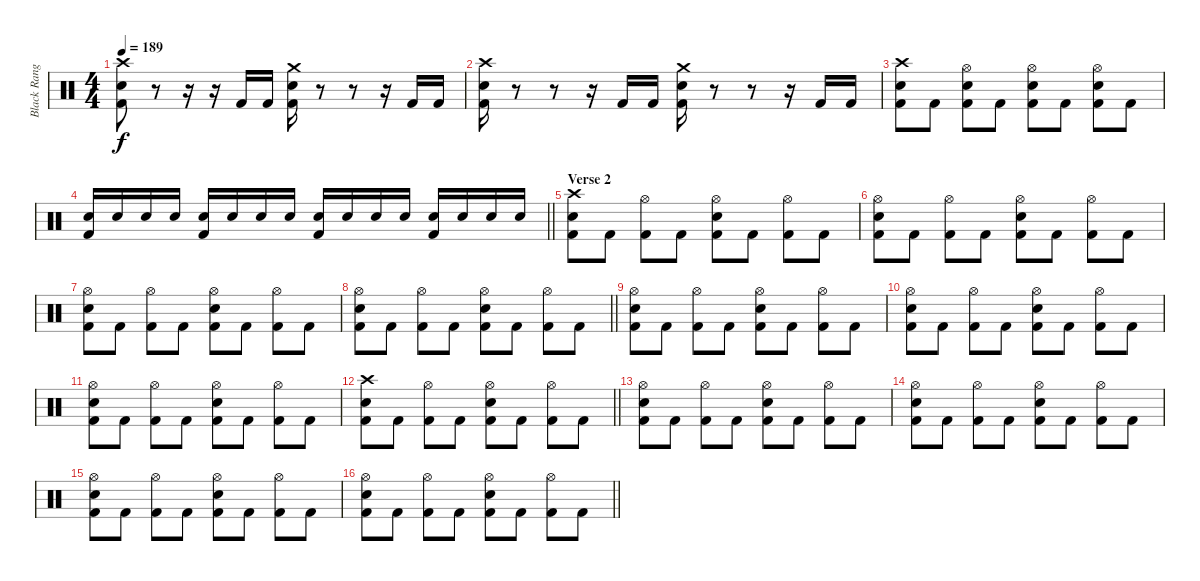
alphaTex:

\track ("Black Ranger (Drums)" "Black Rang") {instrument percussion}
\staff {score}
\articulation defaults
\ts (4 4)
\tempo 189
\clef neutral
\ks c
("Snare (hit) 2" "Kick (hit) 2" "Crash high (hit)").8{dy f} r.8 r.16 r.16 "Kick (hit) 2".16 "Kick (hit) 2".16 ("Snare (hit) 2" "Crash medium (hit)" "Kick (hit) 2").16 r.8 r.8 r.16 "Kick (hit) 2".16 "Kick (hit) 2".16 |
("Snare (hit) 2" "Crash high (hit)" "Kick (hit) 2").16 r.8 r.8 r.16 "Kick (hit) 2".16 "Kick (hit) 2".16 ("Snare (hit) 2" "Crash medium (hit)" "Kick (hit) 2").16 r.8 r.8 r.16 "Kick (hit) 2".16 "Kick (hit) 2".16 |
("Kick (hit) 2" "Snare (hit) 2" "Crash high (hit)").8 "Kick (hit) 2".8 ("Kick (hit) 2" "Snare (hit) 2" "Hi-Hat (open)").8 "Kick (hit) 2".8 ("Kick (hit) 2" "Snare (hit) 2" "Hi-Hat (open)").8 "Kick (hit) 2".8 ("Kick (hit) 2" "Snare (hit) 2" "Hi-Hat (open)").8 "Kick (hit) 2".8 |
\barLineRight lightlight
("Snare (hit) 2" "Kick (hit) 2").16 "Snare (hit) 2".16 "Snare (hit) 2".16 "Snare (hit) 2".16 ("Snare (hit) 2" "Kick (hit) 2").16 "Snare (hit) 2".16 "Snare (hit) 2".16 "Snare (hit) 2".16 ("Snare (hit) 2" "Kick (hit) 2").16 "Snare (hit) 2".16 "Snare (hit) 2".16 "Snare (hit) 2".16 ("Snare (hit) 2" "Kick (hit) 2").16 "Snare (hit) 2".16 "Snare (hit) 2".16 "Snare (hit) 2".16 |
\section ("" "Verse 2")
("Kick (hit) 2" "Snare (hit) 2" "Crash high (hit)").8 "Kick (hit) 2".8 ("Kick (hit) 2" "Hi-Hat (open)").8 "Kick (hit) 2".8 ("Kick (hit) 2" "Snare (hit) 2" "Hi-Hat (open)").8 "Kick (hit) 2".8 ("Kick (hit) 2" "Hi-Hat (open)").8 "Kick (hit) 2".8 |
("Kick (hit) 2" "Snare (hit) 2" "Hi-Hat (open)").8 "Kick (hit) 2".8 ("Kick (hit) 2" "Hi-Hat (open)").8 "Kick (hit) 2".8 ("Kick (hit) 2" "Snare (hit) 2" "Hi-Hat (open)").8 "Kick (hit) 2".8 ("Kick (hit) 2" "Hi-Hat (open)").8 "Kick (hit) 2".8 |
("Kick (hit) 2" "Snare (hit) 2" "Hi-Hat (open)").8 "Kick (hit) 2".8 ("Kick (hit) 2" "Hi-Hat (open)").8 "Kick (hit) 2".8 ("Kick (hit) 2" "Snare (hit) 2" "Hi-Hat (open)").8 "Kick (hit) 2".8 ("Kick (hit) 2" "Hi-Hat (open)").8 "Kick (hit) 2".8 |
\barLineRight lightlight
("Kick (hit) 2" "Snare (hit) 2" "Hi-Hat (open)").8 "Kick (hit) 2".8 ("Kick (hit) 2" "Hi-Hat (open)").8 "Kick (hit) 2".8 ("Kick (hit) 2" "Snare (hit) 2" "Hi-Hat (open)").8 "Kick (hit) 2".8 ("Kick (hit) 2" "Hi-Hat (open)").8 "Kick (hit) 2".8 |
("Kick (hit) 2" "Snare (hit) 2" "Hi-Hat (open)").8 "Kick (hit) 2".8 ("Kick (hit) 2" "Hi-Hat (open)").8 "Kick (hit) 2".8 ("Kick (hit) 2" "Snare (hit) 2" "Hi-Hat (open)").8 "Kick (hit) 2".8 ("Kick (hit) 2" "Hi-Hat (open)").8 "Kick (hit) 2".8 |
("Kick (hit) 2" "Snare (hit) 2" "Hi-Hat (open)").8 "Kick (hit) 2".8 ("Kick (hit) 2" "Hi-Hat (open)").8 "Kick (hit) 2".8 ("Kick (hit) 2" "Snare (hit) 2" "Hi-Hat (open)").8 "Kick (hit) 2".8 ("Kick (hit) 2" "Hi-Hat (open)").8 "Kick (hit) 2".8 |
("Kick (hit) 2" "Snare (hit) 2" "Hi-Hat (open)").8 "Kick (hit) 2".8 ("Kick (hit) 2" "Hi-Hat (open)").8 "Kick (hit) 2".8 ("Kick (hit) 2" "Snare (hit) 2" "Hi-Hat (open)").8 "Kick (hit) 2".8 ("Kick (hit) 2" "Hi-Hat (open)").8 "Kick (hit) 2".8 |
\barLineRight lightlight
("Kick (hit) 2" "Snare (hit) 2" "Crash high (hit)").8 "Kick (hit) 2".8 ("Kick (hit) 2" "Hi-Hat (open)").8 "Kick (hit) 2".8 ("Kick (hit) 2" "Snare (hit) 2" "Hi-Hat (open)").8 "Kick (hit) 2".8 ("Kick (hit) 2" "Hi-Hat (open)").8 "Kick (hit) 2".8 |
("Kick (hit) 2" "Snare (hit) 2" "Hi-Hat (open)").8 "Kick (hit) 2".8 ("Kick (hit) 2" "Hi-Hat (open)").8 "Kick (hit) 2".8 ("Kick (hit) 2" "Snare (hit) 2" "Hi-Hat (open)").8 "Kick (hit) 2".8 ("Kick (hit) 2" "Hi-Hat (open)").8 "Kick (hit) 2".8 |
("Kick (hit) 2" "Snare (hit) 2" "Hi-Hat (open)").8 "Kick (hit) 2".8 ("Kick (hit) 2" "Hi-Hat (open)").8 "Kick (hit) 2".8 ("Kick (hit) 2" "Snare (hit) 2" "Hi-Hat (open)").8 "Kick (hit) 2".8 ("Kick (hit) 2" "Hi-Hat (open)").8 "Kick (hit) 2".8 |
("Kick (hit) 2" "Snare (hit) 2" "Hi-Hat (open)").8 "Kick (hit) 2".8 ("Kick (hit) 2" "Hi-Hat (open)").8 "Kick (hit) 2".8 ("Kick (hit) 2" "Snare (hit) 2" "Hi-Hat (open)").8 "Kick (hit) 2".8 ("Kick (hit) 2" "Hi-Hat (open)").8 "Kick (hit) 2".8 |
\barLineRight lightlight
("Kick (hit) 2" "Snare (hit) 2" "Hi-Hat (open)").8 "Kick (hit) 2".8 ("Kick (hit) 2" "Hi-Hat (open)").8 "Kick (hit) 2".8 ("Kick (hit) 2" "Snare (hit) 2" "Hi-Hat (open)").8 "Kick (hit) 2".8 ("Kick (hit) 2" "Hi-Hat (open)").8 "Kick (hit) 2".8
